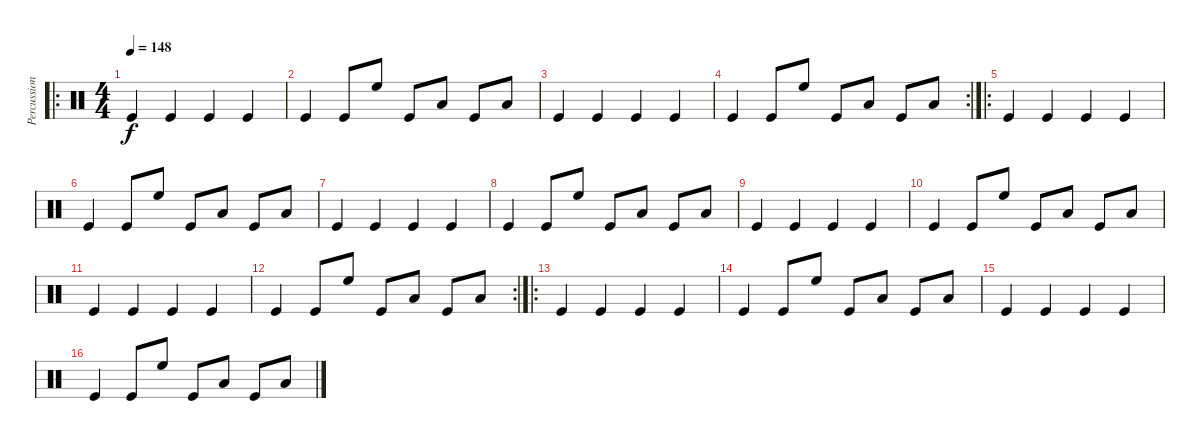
\track ("Percussion" "Percussion") {instrument percussion}
\staff {score}
\articulation defaults
\ro
\ts (4 4)
\tempo 148
\clef neutral
\ks c "Kick (hit)".4{dy f} "Kick (hit)".4 "Kick (hit)".4 "Kick (hit)".4
|
"Kick (hit)".4 "Kick (hit)".8 "High Floor Tom (hit)".8 "Kick (hit)".8 "Low Tom (hit)".8 "Kick (hit)".8 "Low Floor Tom (hit)".8 |
"Kick (hit)".4 "Kick (hit)".4 "Kick (hit)".4 "Kick (hit)".4 |
\rc 2 "Kick (hit)".4 "Kick (hit)".8 "High Floor Tom (hit)".8 "Kick (hit)".8 "Low Tom (hit)".8 "Kick (hit)".8 "Low Floor Tom (hit)".8
|
\ro "Kick (hit)".4 "Kick (hit)".4 "Kick (hit)".4 "Kick (hit)".4
|
"Kick (hit)".4 "Kick (hit)".8 "High Floor Tom (hit)".8 "Kick (hit)".8 "Low Tom (hit)".8 "Kick (hit)".8 "Low Floor Tom (hit)".8 |
"Kick (hit)".4 "Kick (hit)".4 "Kick (hit)".4 "Kick (hit)".4 |
"Kick (hit)".4 "Kick (hit)".8 "High Floor Tom (hit)".8 "Kick (hit)".8 "Low Tom (hit)".8 "Kick (hit)".8 "Low Floor Tom (hit)".8 |
"Kick (hit)".4 "Kick (hit)".4 "Kick (hit)".4 "Kick (hit)".4 |
"Kick (hit)".4 "Kick (hit)".8 "High Floor Tom (hit)".8 "Kick (hit)".8 "Low Tom (hit)".8 "Kick (hit)".8 "Low Floor Tom (hit)".8 |
"Kick (hit)".4 "Kick (hit)".4 "Kick (hit)".4 "Kick (hit)".4 |
\rc 2 "Kick (hit)".4 "Kick (hit)".8 "High Floor Tom (hit)".8 "Kick (hit)".8 "Low Tom (hit)".8 "Kick (hit)".8 "Low Floor Tom (hit)".8
|
\ro "Kick (hit)".4 "Kick (hit)".4 "Kick (hit)".4 "Kick (hit)".4
|
"Kick (hit)".4 "Kick (hit)".8 "High Floor Tom (hit)".8 "Kick (hit)".8 "Low Tom (hit)".8 "Kick (hit)".8 "Low Floor Tom (hit)".8 |
"Kick (hit)".4 "Kick (hit)".4 "Kick (hit)".4 "Kick (hit)".4 |
"Kick (hit)".4 "Kick (hit)".8 "High Floor Tom (hit)".8 "Kick (hit)".8 "Low Tom (hit)".8 "Kick (hit)".8 "Low Floor Tom (hit)".8
